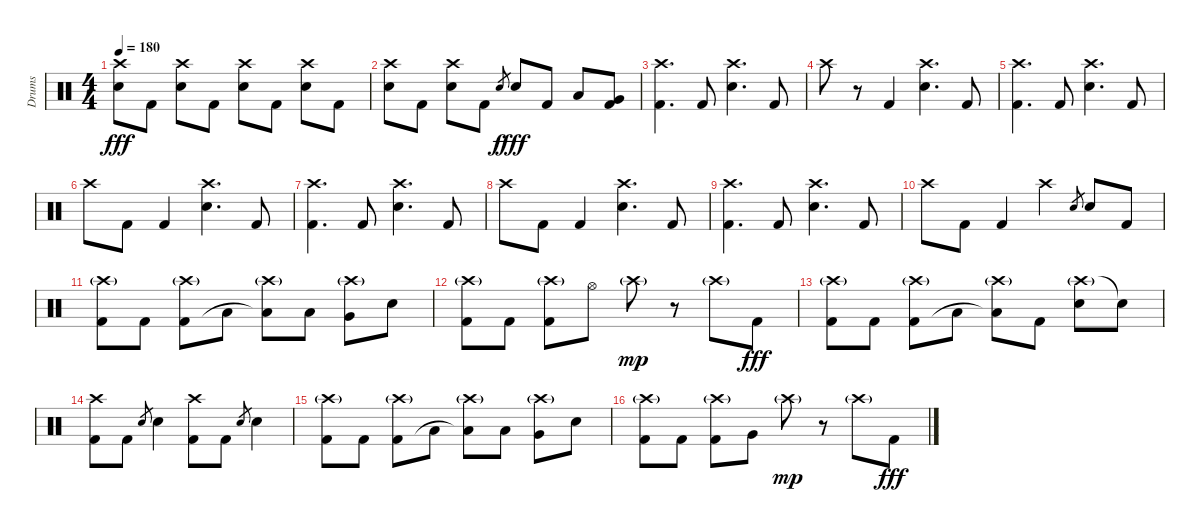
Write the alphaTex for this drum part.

\track ("Drums" "Drums") {instrument percussion}
\staff {score}
\articulation defaults
\ts (4 4)
\tempo 180
\clef neutral
\ks c
("Crash high (hit)" "Electric Snare (hit)").8{dy fff} "Kick (hit) 2".8 ("Crash high (hit)" "Electric Snare (hit)").8 "Kick (hit) 2".8 ("Crash high (hit)" "Electric Snare (hit)").8 "Kick (hit) 2".8 ("Crash high (hit)" "Electric Snare (hit)").8 "Kick (hit) 2".8 |
("Crash high (hit)" "Electric Snare (hit)").8 "Kick (hit) 2".8 ("Crash high (hit)" "Electric Snare (hit)").8 "Kick (hit) 2".8 "Electric Snare (hit)".8{gr dy f} "Electric Snare (hit)".8{dy fff} "Kick (hit) 2".8 "Low Tom (hit)".8 ("Very Low Tom (hit)" "Kick (hit) 2").8 |
("Crash high (hit)" "Kick (hit) 2").4{d} "Kick (hit) 2".8 ("Crash high (hit)" "Electric Snare (hit)").4{d} "Kick (hit) 2".8 |
"Crash high (hit)".8 r.8 "Kick (hit) 2".4 ("Crash high (hit)" "Electric Snare (hit)").4{d} "Kick (hit) 2".8 |
("Crash high (hit)" "Kick (hit) 2").4{d} "Kick (hit) 2".8 ("Crash high (hit)" "Electric Snare (hit)").4{d} "Kick (hit) 2".8 |
"Crash high (hit)".8 "Kick (hit) 2".8 "Kick (hit) 2".4 ("Crash high (hit)" "Electric Snare (hit)").4{d} "Kick (hit) 2".8 |
("Crash high (hit)" "Kick (hit) 2").4{d} "Kick (hit) 2".8 ("Crash high (hit)" "Electric Snare (hit)").4{d} "Kick (hit) 2".8 |
"Crash high (hit)".8 "Kick (hit) 2".8 "Kick (hit) 2".4 ("Crash high (hit)" "Electric Snare (hit)").4{d} "Kick (hit) 2".8 |
("Crash high (hit)" "Kick (hit) 2").4{d} "Kick (hit) 2".8 ("Crash high (hit)" "Electric Snare (hit)").4{d} "Kick (hit) 2".8 |
"Crash high (hit)".8 "Kick (hit) 2".8 "Kick (hit) 2".4 "Crash high (hit)".4 "Electric Snare (hit)".8{gr} "Electric Snare (hit)".8 "Kick (hit) 2".8 |
("Crash high (hit)"{g} "Kick (hit) 2").8 "Kick (hit) 2".8 ("Crash high (hit)"{g} "Kick (hit) 2").8 "Low Tom (hit)".8 ("Crash high (hit)"{g} "Low Tom (hit)"{t}).8 "Low Tom (hit)".8 ("Crash high (hit)"{g} "Very Low Tom (hit)").8 "Electric Snare (hit)".8 |
("Crash high (hit)"{g} "Kick (hit) 2").8 "Kick (hit) 2".8 ("Crash high (hit)"{g} "Kick (hit) 2").8 "Hi-Hat (open)".8 "Crash high (hit)"{g}.8{dy mp} r.8 "Crash high (hit)"{g}.8 "Kick (hit) 2".8{dy fff} |
("Crash high (hit)"{g} "Kick (hit) 2").8 "Kick (hit) 2".8 ("Crash high (hit)"{g} "Kick (hit) 2").8 "Low Tom (hit)".8 ("Crash high (hit)"{g} "Low Tom (hit)"{t}).8 "Kick (hit) 2".8 ("Crash high (hit)"{g} "Electric Snare (hit)").8 "Electric Snare (hit)"{t}.8 |
("Crash high (hit)" "Kick (hit) 2").8 "Kick (hit) 2".8 "Electric Snare (hit)".8{gr} "Electric Snare (hit)".4 ("Crash high (hit)" "Kick (hit) 2").8 "Kick (hit) 2".8 "Electric Snare (hit)".8{gr} "Electric Snare (hit)".4 |
("Crash high (hit)"{g} "Kick (hit) 2").8 "Kick (hit) 2".8 ("Crash high (hit)"{g} "Kick (hit) 2").8 "Low Tom (hit)".8 ("Crash high (hit)"{g} "Low Tom (hit)"{t}).8 "Low Tom (hit)".8 ("Crash high (hit)"{g} "Very Low Tom (hit)").8 "Electric Snare (hit)".8 |
("Crash high (hit)"{g} "Kick (hit) 2").8 "Kick (hit) 2".8 ("Crash high (hit)"{g} "Kick (hit) 2").8 "Very Low Tom (hit)".8 "Crash high (hit)"{g}.8{dy mp} r.8 "Crash high (hit)"{g}.8 "Kick (hit) 2".8{dy fff}
